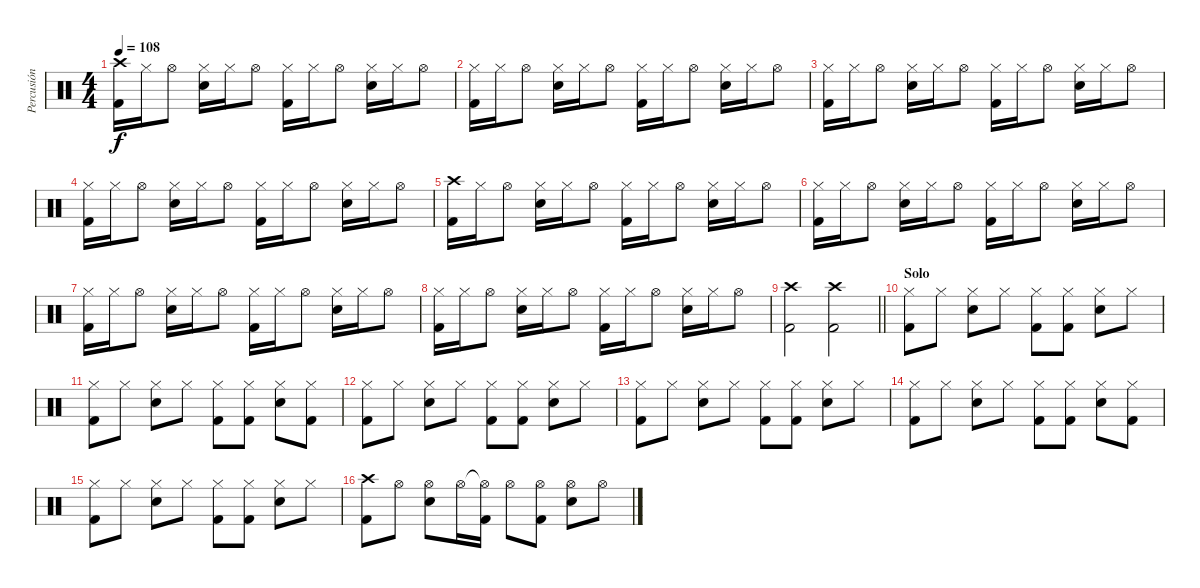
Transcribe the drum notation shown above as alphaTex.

\track ("Percusión" "Percusión") {instrument percussion}
\staff {score}
\articulation defaults
\ts (4 4)
\tempo 108
\clef neutral
\ks c
("Crash high (hit)" "Kick (hit) 2").16{dy f} "Hi-Hat (closed)".16 "Hi-Hat (open)".8 ("Hi-Hat (closed)" "Electric Snare (hit)").16 "Hi-Hat (closed)".16 "Hi-Hat (open)".8 ("Hi-Hat (closed)" "Kick (hit) 2").16 "Hi-Hat (closed)".16 "Hi-Hat (open)".8 ("Hi-Hat (closed)" "Electric Snare (hit)").16 "Hi-Hat (closed)".16 "Hi-Hat (open)".8 |
("Hi-Hat (closed)" "Kick (hit) 2").16 "Hi-Hat (closed)".16 "Hi-Hat (open)".8 ("Hi-Hat (closed)" "Electric Snare (hit)").16 "Hi-Hat (closed)".16 "Hi-Hat (open)".8 ("Hi-Hat (closed)" "Kick (hit) 2").16 "Hi-Hat (closed)".16 "Hi-Hat (open)".8 ("Hi-Hat (closed)" "Electric Snare (hit)").16 "Hi-Hat (closed)".16 "Hi-Hat (open)".8 |
("Hi-Hat (closed)" "Kick (hit) 2").16 "Hi-Hat (closed)".16 "Hi-Hat (open)".8 ("Hi-Hat (closed)" "Electric Snare (hit)").16 "Hi-Hat (closed)".16 "Hi-Hat (open)".8 ("Hi-Hat (closed)" "Kick (hit) 2").16 "Hi-Hat (closed)".16 "Hi-Hat (open)".8 ("Hi-Hat (closed)" "Electric Snare (hit)").16 "Hi-Hat (closed)".16 "Hi-Hat (open)".8 |
("Hi-Hat (closed)" "Kick (hit) 2").16 "Hi-Hat (closed)".16 "Hi-Hat (open)".8 ("Hi-Hat (closed)" "Electric Snare (hit)").16 "Hi-Hat (closed)".16 "Hi-Hat (open)".8 ("Hi-Hat (closed)" "Kick (hit) 2").16 "Hi-Hat (closed)".16 "Hi-Hat (open)".8 ("Hi-Hat (closed)" "Electric Snare (hit)").16 "Hi-Hat (closed)".16 "Hi-Hat (open)".8 |
("Crash high (hit)" "Kick (hit) 2").16 "Hi-Hat (closed)".16 "Hi-Hat (open)".8 ("Hi-Hat (closed)" "Electric Snare (hit)").16 "Hi-Hat (closed)".16 "Hi-Hat (open)".8 ("Hi-Hat (closed)" "Kick (hit) 2").16 "Hi-Hat (closed)".16 "Hi-Hat (open)".8 ("Hi-Hat (closed)" "Electric Snare (hit)").16 "Hi-Hat (closed)".16 "Hi-Hat (open)".8 |
("Hi-Hat (closed)" "Kick (hit) 2").16 "Hi-Hat (closed)".16 "Hi-Hat (open)".8 ("Hi-Hat (closed)" "Electric Snare (hit)").16 "Hi-Hat (closed)".16 "Hi-Hat (open)".8 ("Hi-Hat (closed)" "Kick (hit) 2").16 "Hi-Hat (closed)".16 "Hi-Hat (open)".8 ("Hi-Hat (closed)" "Electric Snare (hit)").16 "Hi-Hat (closed)".16 "Hi-Hat (open)".8 |
("Hi-Hat (closed)" "Kick (hit) 2").16 "Hi-Hat (closed)".16 "Hi-Hat (open)".8 ("Hi-Hat (closed)" "Electric Snare (hit)").16 "Hi-Hat (closed)".16 "Hi-Hat (open)".8 ("Hi-Hat (closed)" "Kick (hit) 2").16 "Hi-Hat (closed)".16 "Hi-Hat (open)".8 ("Hi-Hat (closed)" "Electric Snare (hit)").16 "Hi-Hat (closed)".16 "Hi-Hat (open)".8 |
("Hi-Hat (closed)" "Kick (hit) 2").16 "Hi-Hat (closed)".16 "Hi-Hat (open)".8 ("Hi-Hat (closed)" "Electric Snare (hit)").16 "Hi-Hat (closed)".16 "Hi-Hat (open)".8 ("Hi-Hat (closed)" "Kick (hit) 2").16 "Hi-Hat (closed)".16 "Hi-Hat (open)".8 ("Hi-Hat (closed)" "Electric Snare (hit)").16 "Hi-Hat (closed)".16 "Hi-Hat (open)".8 |
\barLineRight lightlight
("Crash high (hit)" "Kick (hit) 2").2 ("Crash high (hit)" "Kick (hit) 2").2 |
\section ("" "Solo")
("Hi-Hat (closed)" "Kick (hit) 2").8 "Hi-Hat (closed)".8 ("Hi-Hat (closed)" "Electric Snare (hit)").8 "Hi-Hat (closed)".8 ("Hi-Hat (closed)" "Kick (hit) 2").8 ("Hi-Hat (closed)" "Kick (hit) 2").8 ("Hi-Hat (closed)" "Electric Snare (hit)").8 "Hi-Hat (closed)".8 |
("Hi-Hat (closed)" "Kick (hit) 2").8 "Hi-Hat (closed)".8 ("Hi-Hat (closed)" "Electric Snare (hit)").8 "Hi-Hat (closed)".8 ("Hi-Hat (closed)" "Kick (hit) 2").8 ("Hi-Hat (closed)" "Kick (hit) 2").8 ("Hi-Hat (closed)" "Electric Snare (hit)").8 ("Hi-Hat (closed)" "Kick (hit) 2").8 |
("Hi-Hat (closed)" "Kick (hit) 2").8 "Hi-Hat (closed)".8 ("Hi-Hat (closed)" "Electric Snare (hit)").8 "Hi-Hat (closed)".8 ("Hi-Hat (closed)" "Kick (hit) 2").8 ("Hi-Hat (closed)" "Kick (hit) 2").8 ("Hi-Hat (closed)" "Electric Snare (hit)").8 "Hi-Hat (closed)".8 |
("Hi-Hat (closed)" "Kick (hit) 2").8 "Hi-Hat (closed)".8 ("Hi-Hat (closed)" "Electric Snare (hit)").8 "Hi-Hat (closed)".8 ("Hi-Hat (closed)" "Kick (hit) 2").8 ("Hi-Hat (closed)" "Kick (hit) 2").8 ("Hi-Hat (closed)" "Electric Snare (hit)").8 "Hi-Hat (closed)".8 |
("Hi-Hat (closed)" "Kick (hit) 2").8 "Hi-Hat (closed)".8 ("Hi-Hat (closed)" "Electric Snare (hit)").8 "Hi-Hat (closed)".8 ("Hi-Hat (closed)" "Kick (hit) 2").8 ("Hi-Hat (closed)" "Kick (hit) 2").8 ("Hi-Hat (closed)" "Electric Snare (hit)").8 ("Hi-Hat (closed)" "Kick (hit) 2").8 |
("Hi-Hat (closed)" "Kick (hit) 2").8 "Hi-Hat (closed)".8 ("Hi-Hat (closed)" "Electric Snare (hit)").8 "Hi-Hat (closed)".8 ("Hi-Hat (closed)" "Kick (hit) 2").8 ("Hi-Hat (closed)" "Kick (hit) 2").8 ("Hi-Hat (closed)" "Electric Snare (hit)").8 "Hi-Hat (closed)".8 |
("Crash high (hit)" "Kick (hit) 2").8 "Hi-Hat (open)".8 ("Hi-Hat (open)" "Electric Snare (hit)").8 "Hi-Hat (open)".16 ("Hi-Hat (open)"{t} "Kick (hit) 2").16 "Hi-Hat (open)".8 ("Hi-Hat (open)" "Kick (hit) 2").8 ("Hi-Hat (open)" "Electric Snare (hit)").8 "Hi-Hat (open)".8
